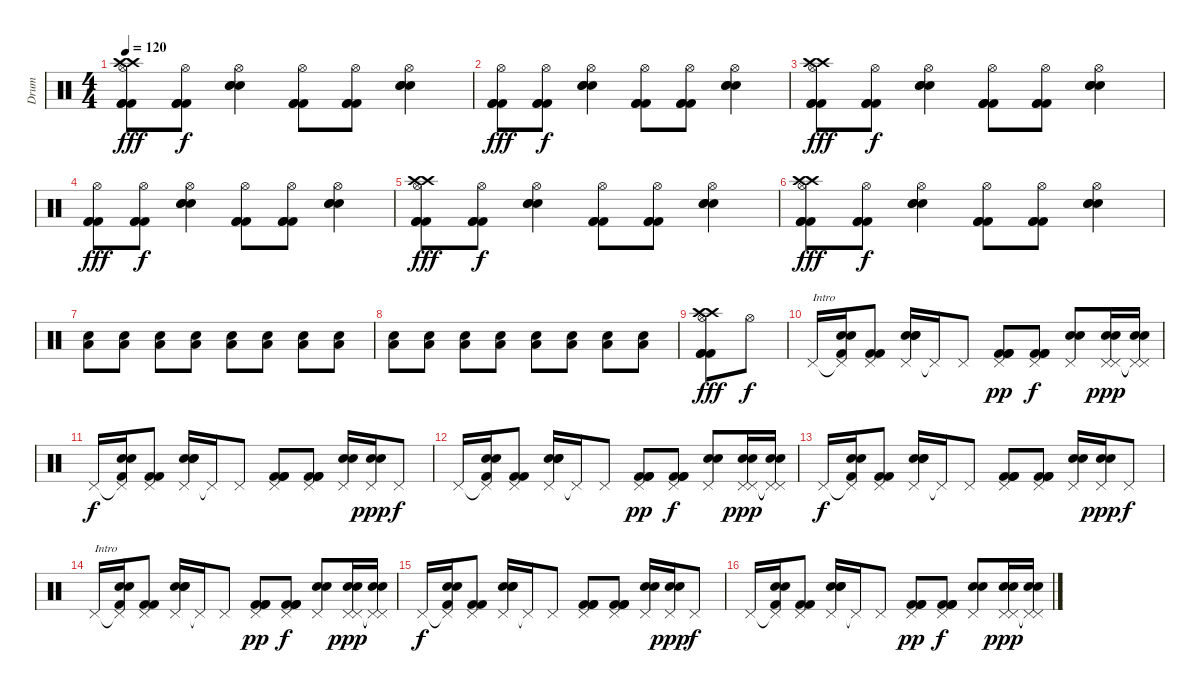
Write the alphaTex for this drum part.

\track ("Drum" "Drum") {instrument percussion}
\staff {score}
\articulation defaults
\ts (4 4)
\tempo 120
\clef neutral
\ks c
("Hi-Hat (open)" "Crash high (hit)" "Crash high (hit)" "Kick (hit) 2" "Kick (hit) 2" "Kick (hit) 2").8{dy fff} ("Hi-Hat (open)" "Kick (hit) 2" "Kick (hit) 2" "Kick (hit) 2").8{dy f} ("Hi-Hat (open)" "Snare (hit) 2" "Snare (hit) 2" "Snare (hit) 2").4 ("Hi-Hat (open)" "Kick (hit) 2" "Kick (hit) 2" "Kick (hit) 2").8 ("Hi-Hat (open)" "Kick (hit) 2" "Kick (hit) 2" "Kick (hit) 2").8 ("Hi-Hat (open)" "Snare (hit) 2" "Snare (hit) 2" "Snare (hit) 2").4 |
("Hi-Hat (open)" "Kick (hit) 2" "Kick (hit) 2" "Kick (hit) 2").8{dy fff} ("Hi-Hat (open)" "Kick (hit) 2" "Kick (hit) 2" "Kick (hit) 2").8{dy f} ("Hi-Hat (open)" "Snare (hit) 2" "Snare (hit) 2" "Snare (hit) 2").4 ("Hi-Hat (open)" "Kick (hit) 2" "Kick (hit) 2" "Kick (hit) 2").8 ("Hi-Hat (open)" "Kick (hit) 2" "Kick (hit) 2" "Kick (hit) 2").8 ("Hi-Hat (open)" "Snare (hit) 2" "Snare (hit) 2" "Snare (hit) 2").4 |
("Hi-Hat (open)" "Crash high (hit)" "Crash high (hit)" "Kick (hit) 2" "Kick (hit) 2" "Kick (hit) 2").8{dy fff} ("Hi-Hat (open)" "Kick (hit) 2" "Kick (hit) 2" "Kick (hit) 2").8{dy f} ("Hi-Hat (open)" "Snare (hit) 2" "Snare (hit) 2" "Snare (hit) 2").4 ("Hi-Hat (open)" "Kick (hit) 2" "Kick (hit) 2" "Kick (hit) 2").8 ("Hi-Hat (open)" "Kick (hit) 2" "Kick (hit) 2" "Kick (hit) 2").8 ("Hi-Hat (open)" "Snare (hit) 2" "Snare (hit) 2" "Snare (hit) 2").4 |
("Hi-Hat (open)" "Kick (hit) 2" "Kick (hit) 2" "Kick (hit) 2").8{dy fff} ("Hi-Hat (open)" "Kick (hit) 2" "Kick (hit) 2" "Kick (hit) 2").8{dy f} ("Hi-Hat (open)" "Snare (hit) 2" "Snare (hit) 2" "Snare (hit) 2").4 ("Hi-Hat (open)" "Kick (hit) 2" "Kick (hit) 2" "Kick (hit) 2").8 ("Hi-Hat (open)" "Kick (hit) 2" "Kick (hit) 2" "Kick (hit) 2").8 ("Hi-Hat (open)" "Snare (hit) 2" "Snare (hit) 2" "Snare (hit) 2").4 |
("Hi-Hat (open)" "Crash high (hit)" "Crash high (hit)" "Kick (hit) 2" "Kick (hit) 2" "Kick (hit) 2").8{dy fff} ("Hi-Hat (open)" "Kick (hit) 2" "Kick (hit) 2" "Kick (hit) 2").8{dy f} ("Hi-Hat (open)" "Snare (hit) 2" "Snare (hit) 2" "Snare (hit) 2").4 ("Hi-Hat (open)" "Kick (hit) 2" "Kick (hit) 2" "Kick (hit) 2").8 ("Hi-Hat (open)" "Kick (hit) 2" "Kick (hit) 2" "Kick (hit) 2").8 ("Hi-Hat (open)" "Snare (hit) 2" "Snare (hit) 2" "Snare (hit) 2").4 |
("Hi-Hat (open)" "Crash high (hit)" "Crash high (hit)" "Kick (hit) 2" "Kick (hit) 2" "Kick (hit) 2").8{dy fff} ("Hi-Hat (open)" "Kick (hit) 2" "Kick (hit) 2" "Kick (hit) 2").8{dy f} ("Hi-Hat (open)" "Snare (hit) 2" "Snare (hit) 2" "Snare (hit) 2").4 ("Hi-Hat (open)" "Kick (hit) 2" "Kick (hit) 2" "Kick (hit) 2").8 ("Hi-Hat (open)" "Kick (hit) 2" "Kick (hit) 2" "Kick (hit) 2").8 ("Hi-Hat (open)" "Snare (hit) 2" "Snare (hit) 2" "Snare (hit) 2").4 |
("Low Floor Tom (hit)" "Snare (hit) 2").8 ("Low Floor Tom (hit)" "Snare (hit) 2").8 ("Low Floor Tom (hit)" "Snare (hit) 2").8 ("Low Floor Tom (hit)" "Snare (hit) 2").8 ("Low Floor Tom (hit)" "Snare (hit) 2").8 ("Low Floor Tom (hit)" "Snare (hit) 2").8 ("Low Floor Tom (hit)" "Snare (hit) 2").8 ("Low Floor Tom (hit)" "Snare (hit) 2").8 |
("Low Floor Tom (hit)" "Snare (hit) 2").8 ("Low Floor Tom (hit)" "Snare (hit) 2").8 ("Low Floor Tom (hit)" "Snare (hit) 2").8 ("Low Floor Tom (hit)" "Snare (hit) 2").8 ("Low Floor Tom (hit)" "Snare (hit) 2").8 ("Low Floor Tom (hit)" "Snare (hit) 2").8 ("Low Floor Tom (hit)" "Snare (hit) 2").8 ("Low Floor Tom (hit)" "Snare (hit) 2").8 |
("Hi-Hat (open)" "Crash high (hit)" "Crash high (hit)" "Kick (hit) 2" "Kick (hit) 2" "Kick (hit) 2").8{dy fff} "Hi-Hat (open)".8{dy f} |
"Pedal Hi-Hat (hit)".16{txt "Intro"} ("Pedal Hi-Hat (hit)"{t} "Snare (hit) 2" "Snare (hit) 2" "Kick (hit) 2").16 ("Pedal Hi-Hat (hit)" "Kick (hit) 2" "Kick (hit) 2").8 ("Pedal Hi-Hat (hit)" "Snare (hit) 2" "Snare (hit) 2" "Snare (hit) 2").16 "Pedal Hi-Hat (hit)"{t}.16 "Pedal Hi-Hat (hit)".8 ("Pedal Hi-Hat (hit)" "Kick (hit) 2" "Kick (hit) 2" "Kick (hit) 2").8{dy pp} ("Pedal Hi-Hat (hit)" "Kick (hit) 2" "Kick (hit) 2" "Kick (hit) 2").8{dy f} ("Pedal Hi-Hat (hit)" "Snare (hit) 2" "Snare (hit) 2").8 ("Pedal Hi-Hat (hit)" "Pedal Hi-Hat (hit)" "Snare (hit) 2" "Snare (hit) 2").16{dy ppp} ("Pedal Hi-Hat (hit)"{t} "Pedal Hi-Hat (hit)"{t} "Snare (hit) 2" "Snare (hit) 2").16 |
"Pedal Hi-Hat (hit)".16{dy f} ("Pedal Hi-Hat (hit)"{t} "Snare (hit) 2" "Snare (hit) 2" "Kick (hit) 2").16 ("Pedal Hi-Hat (hit)" "Kick (hit) 2" "Kick (hit) 2").8 ("Pedal Hi-Hat (hit)" "Snare (hit) 2" "Snare (hit) 2" "Snare (hit) 2").16 "Pedal Hi-Hat (hit)"{t}.16 "Pedal Hi-Hat (hit)".8 ("Pedal Hi-Hat (hit)" "Kick (hit) 2" "Kick (hit) 2" "Kick (hit) 2").8 ("Pedal Hi-Hat (hit)" "Kick (hit) 2" "Kick (hit) 2" "Kick (hit) 2").8 ("Pedal Hi-Hat (hit)" "Snare (hit) 2" "Snare (hit) 2").16 ("Pedal Hi-Hat (hit)" "Snare (hit) 2" "Snare (hit) 2").16{dy ppp} "Pedal Hi-Hat (hit)".8{dy f} |
"Pedal Hi-Hat (hit)".16 ("Pedal Hi-Hat (hit)"{t} "Snare (hit) 2" "Snare (hit) 2" "Kick (hit) 2").16 ("Pedal Hi-Hat (hit)" "Kick (hit) 2" "Kick (hit) 2").8 ("Pedal Hi-Hat (hit)" "Snare (hit) 2" "Snare (hit) 2" "Snare (hit) 2").16 "Pedal Hi-Hat (hit)"{t}.16 "Pedal Hi-Hat (hit)".8 ("Pedal Hi-Hat (hit)" "Kick (hit) 2" "Kick (hit) 2" "Kick (hit) 2").8{dy pp} ("Pedal Hi-Hat (hit)" "Kick (hit) 2" "Kick (hit) 2" "Kick (hit) 2").8{dy f} ("Pedal Hi-Hat (hit)" "Snare (hit) 2" "Snare (hit) 2").8 ("Pedal Hi-Hat (hit)" "Pedal Hi-Hat (hit)" "Snare (hit) 2" "Snare (hit) 2").16{dy ppp} ("Pedal Hi-Hat (hit)"{t} "Pedal Hi-Hat (hit)"{t} "Snare (hit) 2" "Snare (hit) 2").16 |
"Pedal Hi-Hat (hit)".16{dy f} ("Pedal Hi-Hat (hit)"{t} "Snare (hit) 2" "Snare (hit) 2" "Kick (hit) 2").16 ("Pedal Hi-Hat (hit)" "Kick (hit) 2" "Kick (hit) 2").8 ("Pedal Hi-Hat (hit)" "Snare (hit) 2" "Snare (hit) 2" "Snare (hit) 2").16 "Pedal Hi-Hat (hit)"{t}.16 "Pedal Hi-Hat (hit)".8 ("Pedal Hi-Hat (hit)" "Kick (hit) 2" "Kick (hit) 2" "Kick (hit) 2").8 ("Pedal Hi-Hat (hit)" "Kick (hit) 2" "Kick (hit) 2" "Kick (hit) 2").8 ("Pedal Hi-Hat (hit)" "Snare (hit) 2" "Snare (hit) 2").16 ("Pedal Hi-Hat (hit)" "Snare (hit) 2" "Snare (hit) 2").16{dy ppp} "Pedal Hi-Hat (hit)".8{dy f} |
"Pedal Hi-Hat (hit)".16{txt "Intro"} ("Pedal Hi-Hat (hit)"{t} "Snare (hit) 2" "Snare (hit) 2" "Kick (hit) 2").16 ("Pedal Hi-Hat (hit)" "Kick (hit) 2" "Kick (hit) 2").8 ("Pedal Hi-Hat (hit)" "Snare (hit) 2" "Snare (hit) 2" "Snare (hit) 2").16 "Pedal Hi-Hat (hit)"{t}.16 "Pedal Hi-Hat (hit)".8 ("Pedal Hi-Hat (hit)" "Kick (hit) 2" "Kick (hit) 2" "Kick (hit) 2").8{dy pp} ("Pedal Hi-Hat (hit)" "Kick (hit) 2" "Kick (hit) 2" "Kick (hit) 2").8{dy f} ("Pedal Hi-Hat (hit)" "Snare (hit) 2" "Snare (hit) 2").8 ("Pedal Hi-Hat (hit)" "Pedal Hi-Hat (hit)" "Snare (hit) 2" "Snare (hit) 2").16{dy ppp} ("Pedal Hi-Hat (hit)"{t} "Pedal Hi-Hat (hit)"{t} "Snare (hit) 2" "Snare (hit) 2").16 |
"Pedal Hi-Hat (hit)".16{dy f} ("Pedal Hi-Hat (hit)"{t} "Snare (hit) 2" "Snare (hit) 2" "Kick (hit) 2").16 ("Pedal Hi-Hat (hit)" "Kick (hit) 2" "Kick (hit) 2").8 ("Pedal Hi-Hat (hit)" "Snare (hit) 2" "Snare (hit) 2" "Snare (hit) 2").16 "Pedal Hi-Hat (hit)"{t}.16 "Pedal Hi-Hat (hit)".8 ("Pedal Hi-Hat (hit)" "Kick (hit) 2" "Kick (hit) 2" "Kick (hit) 2").8 ("Pedal Hi-Hat (hit)" "Kick (hit) 2" "Kick (hit) 2" "Kick (hit) 2").8 ("Pedal Hi-Hat (hit)" "Snare (hit) 2" "Snare (hit) 2").16 ("Pedal Hi-Hat (hit)" "Snare (hit) 2" "Snare (hit) 2").16{dy ppp} "Pedal Hi-Hat (hit)".8{dy f} |
"Pedal Hi-Hat (hit)".16 ("Pedal Hi-Hat (hit)"{t} "Snare (hit) 2" "Snare (hit) 2" "Kick (hit) 2").16 ("Pedal Hi-Hat (hit)" "Kick (hit) 2" "Kick (hit) 2").8 ("Pedal Hi-Hat (hit)" "Snare (hit) 2" "Snare (hit) 2" "Snare (hit) 2").16 "Pedal Hi-Hat (hit)"{t}.16 "Pedal Hi-Hat (hit)".8 ("Pedal Hi-Hat (hit)" "Kick (hit) 2" "Kick (hit) 2" "Kick (hit) 2").8{dy pp} ("Pedal Hi-Hat (hit)" "Kick (hit) 2" "Kick (hit) 2" "Kick (hit) 2").8{dy f} ("Pedal Hi-Hat (hit)" "Snare (hit) 2" "Snare (hit) 2").8 ("Pedal Hi-Hat (hit)" "Pedal Hi-Hat (hit)" "Snare (hit) 2" "Snare (hit) 2").16{dy ppp} ("Pedal Hi-Hat (hit)"{t} "Pedal Hi-Hat (hit)"{t} "Snare (hit) 2" "Snare (hit) 2").16
